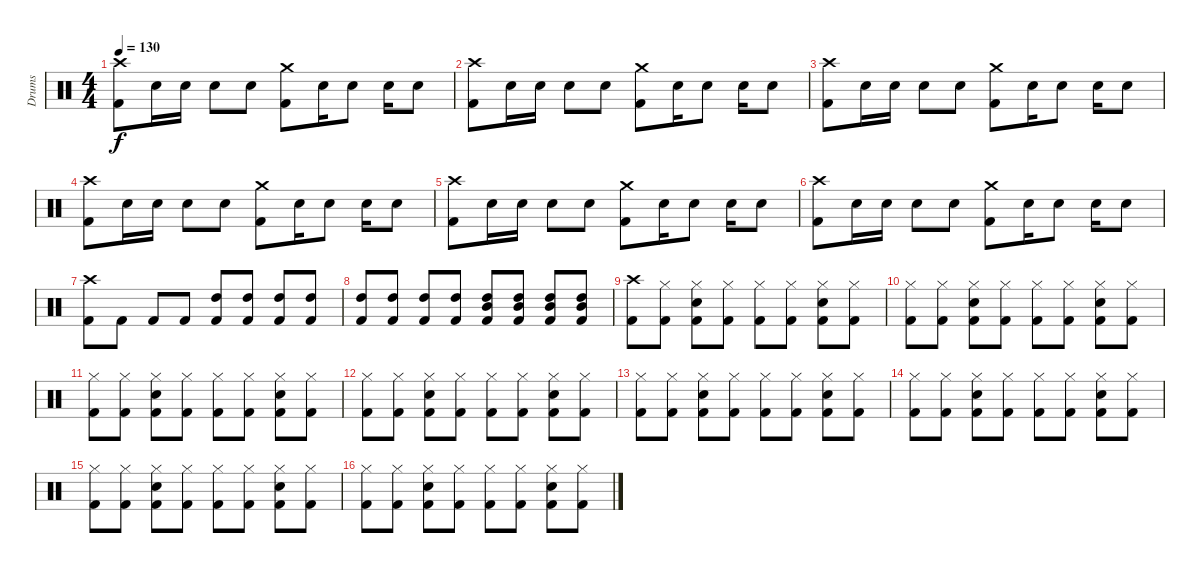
\track ("Drums" "Drums") {instrument percussion}
\staff {score}
\articulation defaults
\ts (4 4)
\tempo 130
\clef neutral
\ks c
("Crash high (hit)" "Kick (hit) 2").8{dy f} "Snare (hit) 2".16 "Snare (hit) 2".16 "Snare (hit) 2".8 "Snare (hit) 2".8 ("Crash medium (hit)" "Kick (hit) 2").8 "Snare (hit) 2".16 "Snare (hit) 2".8 "Snare (hit) 2".16 "Snare (hit) 2".8 |
("Crash high (hit)" "Kick (hit) 2").8 "Snare (hit) 2".16 "Snare (hit) 2".16 "Snare (hit) 2".8 "Snare (hit) 2".8 ("Crash medium (hit)" "Kick (hit) 2").8 "Snare (hit) 2".16 "Snare (hit) 2".8 "Snare (hit) 2".16 "Snare (hit) 2".8 |
("Crash high (hit)" "Kick (hit) 2").8 "Snare (hit) 2".16 "Snare (hit) 2".16 "Snare (hit) 2".8 "Snare (hit) 2".8 ("Crash medium (hit)" "Kick (hit) 2").8 "Snare (hit) 2".16 "Snare (hit) 2".8 "Snare (hit) 2".16 "Snare (hit) 2".8 |
("Crash high (hit)" "Kick (hit) 2").8 "Snare (hit) 2".16 "Snare (hit) 2".16 "Snare (hit) 2".8 "Snare (hit) 2".8 ("Crash medium (hit)" "Kick (hit) 2").8 "Snare (hit) 2".16 "Snare (hit) 2".8 "Snare (hit) 2".16 "Snare (hit) 2".8 |
("Crash high (hit)" "Kick (hit) 2").8 "Snare (hit) 2".16 "Snare (hit) 2".16 "Snare (hit) 2".8 "Snare (hit) 2".8 ("Crash medium (hit)" "Kick (hit) 2").8 "Snare (hit) 2".16 "Snare (hit) 2".8 "Snare (hit) 2".16 "Snare (hit) 2".8 |
("Crash high (hit)" "Kick (hit) 2").8 "Snare (hit) 2".16 "Snare (hit) 2".16 "Snare (hit) 2".8 "Snare (hit) 2".8 ("Crash medium (hit)" "Kick (hit) 2").8 "Snare (hit) 2".16 "Snare (hit) 2".8 "Snare (hit) 2".16 "Snare (hit) 2".8 |
("Crash high (hit)" "Kick (hit) 2").8 "Kick (hit) 2".8 "Kick (hit) 2".8 "Kick (hit) 2".8 ("High Tom (hit)" "Kick (hit) 2").8 ("High Tom (hit)" "Kick (hit) 2").8 ("High Tom (hit)" "Kick (hit) 2").8 ("High Tom (hit)" "Kick (hit) 2").8 |
("High Tom (hit)" "Kick (hit) 2").8 ("High Tom (hit)" "Kick (hit) 2").8 ("High Tom (hit)" "Kick (hit) 2").8 ("High Tom (hit)" "Kick (hit) 2").8 ("Mid Tom (hit)" "High Tom (hit)" "Kick (hit) 2").8 ("Mid Tom (hit)" "High Tom (hit)" "Kick (hit) 2").8 ("Mid Tom (hit)" "High Tom (hit)" "Kick (hit) 2").8 ("Mid Tom (hit)" "High Tom (hit)" "Kick (hit) 2").8 |
("Crash high (hit)" "Kick (hit) 2").8 ("Hi-Hat (closed)" "Kick (hit) 2").8 ("Hi-Hat (closed)" "Snare (hit) 2" "Kick (hit) 2").8 ("Hi-Hat (closed)" "Kick (hit) 2").8 ("Hi-Hat (closed)" "Kick (hit) 2").8 ("Hi-Hat (closed)" "Kick (hit) 2").8 ("Hi-Hat (closed)" "Snare (hit) 2" "Kick (hit) 2").8 ("Hi-Hat (closed)" "Kick (hit) 2").8 |
("Hi-Hat (closed)" "Kick (hit) 2").8 ("Hi-Hat (closed)" "Kick (hit) 2").8 ("Hi-Hat (closed)" "Snare (hit) 2" "Kick (hit) 2").8 ("Hi-Hat (closed)" "Kick (hit) 2").8 ("Hi-Hat (closed)" "Kick (hit) 2").8 ("Hi-Hat (closed)" "Kick (hit) 2").8 ("Hi-Hat (closed)" "Snare (hit) 2" "Kick (hit) 2").8 ("Hi-Hat (closed)" "Kick (hit) 2").8 |
("Hi-Hat (closed)" "Kick (hit) 2").8 ("Hi-Hat (closed)" "Kick (hit) 2").8 ("Hi-Hat (closed)" "Snare (hit) 2" "Kick (hit) 2").8 ("Hi-Hat (closed)" "Kick (hit) 2").8 ("Hi-Hat (closed)" "Kick (hit) 2").8 ("Hi-Hat (closed)" "Kick (hit) 2").8 ("Hi-Hat (closed)" "Snare (hit) 2" "Kick (hit) 2").8 ("Hi-Hat (closed)" "Kick (hit) 2").8 |
("Hi-Hat (closed)" "Kick (hit) 2").8 ("Hi-Hat (closed)" "Kick (hit) 2").8 ("Hi-Hat (closed)" "Snare (hit) 2" "Kick (hit) 2").8 ("Hi-Hat (closed)" "Kick (hit) 2").8 ("Hi-Hat (closed)" "Kick (hit) 2").8 ("Hi-Hat (closed)" "Kick (hit) 2").8 ("Hi-Hat (closed)" "Snare (hit) 2" "Kick (hit) 2").8 ("Hi-Hat (closed)" "Kick (hit) 2").8 |
("Hi-Hat (closed)" "Kick (hit) 2").8 ("Hi-Hat (closed)" "Kick (hit) 2").8 ("Hi-Hat (closed)" "Snare (hit) 2" "Kick (hit) 2").8 ("Hi-Hat (closed)" "Kick (hit) 2").8 ("Hi-Hat (closed)" "Kick (hit) 2").8 ("Hi-Hat (closed)" "Kick (hit) 2").8 ("Hi-Hat (closed)" "Snare (hit) 2" "Kick (hit) 2").8 ("Hi-Hat (closed)" "Kick (hit) 2").8 |
("Hi-Hat (closed)" "Kick (hit) 2").8 ("Hi-Hat (closed)" "Kick (hit) 2").8 ("Hi-Hat (closed)" "Snare (hit) 2" "Kick (hit) 2").8 ("Hi-Hat (closed)" "Kick (hit) 2").8 ("Hi-Hat (closed)" "Kick (hit) 2").8 ("Hi-Hat (closed)" "Kick (hit) 2").8 ("Hi-Hat (closed)" "Snare (hit) 2" "Kick (hit) 2").8 ("Hi-Hat (closed)" "Kick (hit) 2").8 |
("Hi-Hat (closed)" "Kick (hit) 2").8 ("Hi-Hat (closed)" "Kick (hit) 2").8 ("Hi-Hat (closed)" "Snare (hit) 2" "Kick (hit) 2").8 ("Hi-Hat (closed)" "Kick (hit) 2").8 ("Hi-Hat (closed)" "Kick (hit) 2").8 ("Hi-Hat (closed)" "Kick (hit) 2").8 ("Hi-Hat (closed)" "Snare (hit) 2" "Kick (hit) 2").8 ("Hi-Hat (closed)" "Kick (hit) 2").8 |
("Hi-Hat (closed)" "Kick (hit) 2").8 ("Hi-Hat (closed)" "Kick (hit) 2").8 ("Hi-Hat (closed)" "Snare (hit) 2" "Kick (hit) 2").8 ("Hi-Hat (closed)" "Kick (hit) 2").8 ("Hi-Hat (closed)" "Kick (hit) 2").8 ("Hi-Hat (closed)" "Kick (hit) 2").8 ("Hi-Hat (closed)" "Snare (hit) 2" "Kick (hit) 2").8 ("Hi-Hat (closed)" "Kick (hit) 2").8
